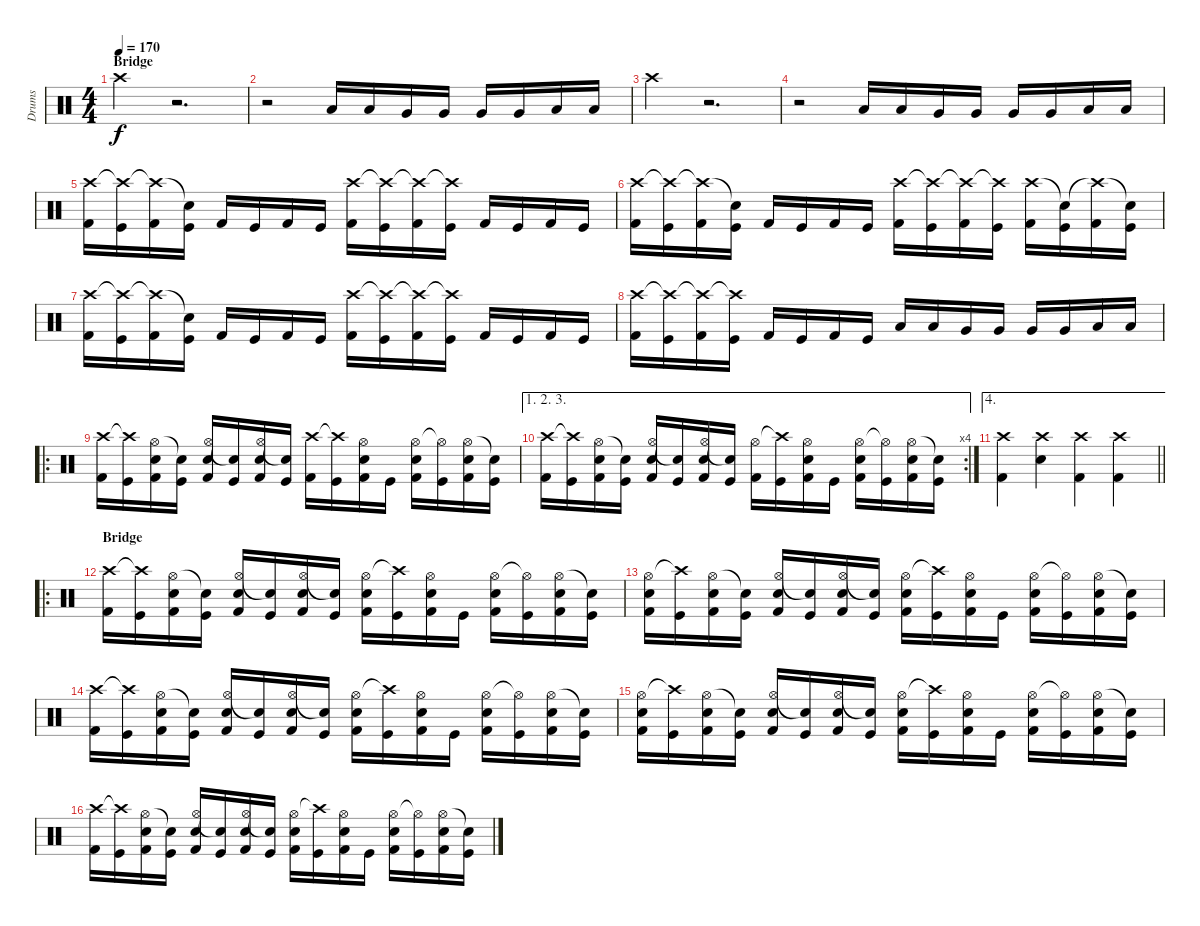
\track ("Drums" "Drums") {instrument percussion}
\staff {score}
\articulation defaults
\ts (4 4)
\section ("" "Bridge")
\tempo 170
\clef neutral
\ks c "Crash high (hit)".4{dy f}
r.2{d} |
r.2 "Low Tom (hit)".16 "Low Tom (hit)".16 "Very Low Tom (hit)".16 "Very Low Tom (hit)".16 "Very Low Tom (hit)".16 "Very Low Tom (hit)".16 "Low Floor Tom (hit)".16 "Low Floor Tom (hit)".16 |
"Crash high (hit)".4 r.2{d} |
r.2 "Low Tom (hit)".16 "Low Tom (hit)".16 "Very Low Tom (hit)".16 "Very Low Tom (hit)".16 "Very Low Tom (hit)".16 "Very Low Tom (hit)".16 "Low Floor Tom (hit)".16 "Low Floor Tom (hit)".16 |
("Crash high (hit)" "Kick (hit) 2").16 ("Crash high (hit)"{t} "Kick (hit)").16 ("Crash high (hit)"{t} "Kick (hit) 2").16 ("Snare (hit)"{t} "Kick (hit)").16 "Kick (hit) 2".16 "Kick (hit)".16 "Kick (hit) 2".16 "Kick (hit)".16 ("Crash high (hit)" "Kick (hit) 2").16 ("Crash high (hit)"{t} "Kick (hit)").16 ("Crash high (hit)"{t} "Kick (hit) 2").16 ("Crash high (hit)"{t} "Kick (hit)").16 "Kick (hit) 2".16 "Kick (hit)".16 "Kick (hit) 2".16 "Kick (hit)".16 |
("Crash high (hit)" "Kick (hit) 2").16 ("Crash high (hit)"{t} "Kick (hit)").16 ("Crash high (hit)"{t} "Kick (hit) 2").16 ("Snare (hit)"{t} "Kick (hit)").16 "Kick (hit) 2".16 "Kick (hit)".16 "Kick (hit) 2".16 "Kick (hit)".16 ("Crash high (hit)" "Kick (hit) 2").16 ("Crash high (hit)"{t} "Kick (hit)").16 ("Crash high (hit)"{t} "Kick (hit) 2").16 ("Crash high (hit)"{t} "Kick (hit)").16 ("Crash high (hit)" "Kick (hit) 2").16 ("Snare (hit)"{t} "Kick (hit)").16 ("Crash high (hit)"{t} "Kick (hit) 2").16 ("Snare (hit)"{t} "Kick (hit)").16 |
("Crash high (hit)" "Kick (hit) 2").16 ("Crash high (hit)"{t} "Kick (hit)").16 ("Crash high (hit)"{t} "Kick (hit) 2").16 ("Snare (hit)"{t} "Kick (hit)").16 "Kick (hit) 2".16 "Kick (hit)".16 "Kick (hit) 2".16 "Kick (hit)".16 ("Crash high (hit)" "Kick (hit) 2").16 ("Crash high (hit)"{t} "Kick (hit)").16 ("Crash high (hit)"{t} "Kick (hit) 2").16 ("Crash high (hit)"{t} "Kick (hit)").16 "Kick (hit) 2".16 "Kick (hit)".16 "Kick (hit) 2".16 "Kick (hit)".16 |
("Crash high (hit)" "Kick (hit) 2").16 ("Crash high (hit)"{t} "Kick (hit)").16 ("Crash high (hit)"{t} "Kick (hit) 2").16 ("Crash high (hit)"{t} "Kick (hit)").16 "Kick (hit) 2".16 "Kick (hit)".16 "Kick (hit) 2".16 "Kick (hit)".16 "Low Tom (hit)".16 "Low Tom (hit)".16 "Very Low Tom (hit)".16 "Very Low Tom (hit)".16 "Very Low Tom (hit)".16 "Very Low Tom (hit)".16 "Low Floor Tom (hit)".16 "Low Floor Tom (hit)".16 |
\ro
("Crash high (hit)" "Kick (hit) 2").16 ("Crash high (hit)"{t} "Kick (hit)").16 ("Hi-Hat (open)" "Electric Snare (hit)" "Kick (hit) 2").16 ("Snare (hit)"{t} "Kick (hit)").16 ("Hi-Hat (open)" "Electric Snare (hit)" "Kick (hit) 2").16 ("Snare (hit)"{t} "Kick (hit)").16 ("Hi-Hat (open)" "Electric Snare (hit)" "Kick (hit) 2").16 ("Snare (hit)"{t} "Kick (hit)").16 ("Crash high (hit)" "Kick (hit) 2").16 ("Crash high (hit)"{t} "Kick (hit)").16 ("Hi-Hat (open)" "Electric Snare (hit)" "Kick (hit) 2").16 "Kick (hit)".16 ("Hi-Hat (open)" "Electric Snare (hit)" "Kick (hit) 2").16 ("Hi-Hat (open)"{t} "Kick (hit)").16 ("Hi-Hat (open)" "Electric Snare (hit)" "Kick (hit) 2").16 ("Snare (hit)"{t} "Kick (hit)").16 |
\ae (1 2 3)
\rc 4
("Crash high (hit)" "Kick (hit) 2").16 ("Crash high (hit)"{t} "Kick (hit)").16 ("Hi-Hat (open)" "Electric Snare (hit)" "Kick (hit) 2").16 ("Snare (hit)"{t} "Kick (hit)").16 ("Hi-Hat (open)" "Electric Snare (hit)" "Kick (hit) 2").16 ("Snare (hit)"{t} "Kick (hit)").16 ("Hi-Hat (open)" "Electric Snare (hit)" "Kick (hit) 2").16 ("Snare (hit)"{t} "Kick (hit)").16 ("Hi-Hat (open)" "Kick (hit) 2").16 ("Crash high (hit)"{t} "Kick (hit)").16 ("Hi-Hat (open)" "Electric Snare (hit)" "Kick (hit) 2").16 "Kick (hit)".16 ("Hi-Hat (open)" "Electric Snare (hit)" "Kick (hit) 2").16 ("Hi-Hat (open)"{t} "Kick (hit)").16 ("Hi-Hat (open)" "Electric Snare (hit)" "Kick (hit) 2").16 ("Snare (hit)"{t} "Kick (hit)").16 |
\ae 4
\barLineRight lightlight
("Crash high (hit)" "Kick (hit) 2").4 ("Crash high (hit)" "Electric Snare (hit)").4 ("Crash high (hit)" "Kick (hit) 2").4 ("Crash high (hit)" "Kick (hit) 2").4 |
\ro
\section ("" "Bridge")
("Crash high (hit)" "Kick (hit) 2").16 ("Crash high (hit)"{t} "Kick (hit)").16 ("Hi-Hat (open)" "Electric Snare (hit)" "Kick (hit) 2").16 ("Snare (hit)"{t} "Kick (hit)").16 ("Hi-Hat (open)" "Electric Snare (hit)" "Kick (hit) 2").16 ("Snare (hit)"{t} "Kick (hit)").16 ("Hi-Hat (open)" "Electric Snare (hit)" "Kick (hit) 2").16 ("Snare (hit)"{t} "Kick (hit)").16 ("Hi-Hat (open)" "Electric Snare (hit)" "Kick (hit) 2").16 ("Crash high (hit)"{t} "Kick (hit)").16 ("Hi-Hat (open)" "Electric Snare (hit)" "Kick (hit) 2").16 "Kick (hit)".16 ("Hi-Hat (open)" "Electric Snare (hit)" "Kick (hit) 2").16 ("Hi-Hat (open)"{t} "Kick (hit)").16 ("Hi-Hat (open)" "Electric Snare (hit)" "Kick (hit) 2").16 ("Snare (hit)"{t} "Kick (hit)").16 |
("Hi-Hat (open)" "Electric Snare (hit)" "Kick (hit) 2").16 ("Crash high (hit)"{t} "Kick (hit)").16 ("Hi-Hat (open)" "Electric Snare (hit)" "Kick (hit) 2").16 ("Snare (hit)"{t} "Kick (hit)").16 ("Hi-Hat (open)" "Electric Snare (hit)" "Kick (hit) 2").16 ("Snare (hit)"{t} "Kick (hit)").16 ("Hi-Hat (open)" "Electric Snare (hit)" "Kick (hit) 2").16 ("Snare (hit)"{t} "Kick (hit)").16 ("Hi-Hat (open)" "Electric Snare (hit)" "Kick (hit) 2").16 ("Crash high (hit)"{t} "Kick (hit)").16 ("Hi-Hat (open)" "Electric Snare (hit)" "Kick (hit) 2").16 "Kick (hit)".16 ("Hi-Hat (open)" "Electric Snare (hit)" "Kick (hit) 2").16 ("Hi-Hat (open)"{t} "Kick (hit)").16 ("Hi-Hat (open)" "Electric Snare (hit)" "Kick (hit) 2").16 ("Snare (hit)"{t} "Kick (hit)").16 |
("Crash high (hit)" "Kick (hit) 2").16 ("Crash high (hit)"{t} "Kick (hit)").16 ("Hi-Hat (open)" "Electric Snare (hit)" "Kick (hit) 2").16 ("Snare (hit)"{t} "Kick (hit)").16 ("Hi-Hat (open)" "Electric Snare (hit)" "Kick (hit) 2").16 ("Snare (hit)"{t} "Kick (hit)").16 ("Hi-Hat (open)" "Electric Snare (hit)" "Kick (hit) 2").16 ("Snare (hit)"{t} "Kick (hit)").16 ("Hi-Hat (open)" "Electric Snare (hit)" "Kick (hit) 2").16 ("Crash high (hit)"{t} "Kick (hit)").16 ("Hi-Hat (open)" "Electric Snare (hit)" "Kick (hit) 2").16 "Kick (hit)".16 ("Hi-Hat (open)" "Electric Snare (hit)" "Kick (hit) 2").16 ("Hi-Hat (open)"{t} "Kick (hit)").16 ("Hi-Hat (open)" "Electric Snare (hit)" "Kick (hit) 2").16 ("Snare (hit)"{t} "Kick (hit)").16 |
("Hi-Hat (open)" "Electric Snare (hit)" "Kick (hit) 2").16 ("Crash high (hit)"{t} "Kick (hit)").16 ("Hi-Hat (open)" "Electric Snare (hit)" "Kick (hit) 2").16 ("Snare (hit)"{t} "Kick (hit)").16 ("Hi-Hat (open)" "Electric Snare (hit)" "Kick (hit) 2").16 ("Snare (hit)"{t} "Kick (hit)").16 ("Hi-Hat (open)" "Electric Snare (hit)" "Kick (hit) 2").16 ("Snare (hit)"{t} "Kick (hit)").16 ("Hi-Hat (open)" "Electric Snare (hit)" "Kick (hit) 2").16 ("Crash high (hit)"{t} "Kick (hit)").16 ("Hi-Hat (open)" "Electric Snare (hit)" "Kick (hit) 2").16 "Kick (hit)".16 ("Hi-Hat (open)" "Electric Snare (hit)" "Kick (hit) 2").16 ("Hi-Hat (open)"{t} "Kick (hit)").16 ("Hi-Hat (open)" "Electric Snare (hit)" "Kick (hit) 2").16 ("Snare (hit)"{t} "Kick (hit)").16 |
("Crash high (hit)" "Kick (hit) 2").16 ("Crash high (hit)"{t} "Kick (hit)").16 ("Hi-Hat (open)" "Electric Snare (hit)" "Kick (hit) 2").16 ("Snare (hit)"{t} "Kick (hit)").16 ("Hi-Hat (open)" "Electric Snare (hit)" "Kick (hit) 2").16 ("Snare (hit)"{t} "Kick (hit)").16 ("Hi-Hat (open)" "Electric Snare (hit)" "Kick (hit) 2").16 ("Snare (hit)"{t} "Kick (hit)").16 ("Hi-Hat (open)" "Electric Snare (hit)" "Kick (hit) 2").16 ("Crash high (hit)"{t} "Kick (hit)").16 ("Hi-Hat (open)" "Electric Snare (hit)" "Kick (hit) 2").16 "Kick (hit)".16 ("Hi-Hat (open)" "Electric Snare (hit)" "Kick (hit) 2").16 ("Hi-Hat (open)"{t} "Kick (hit)").16 ("Hi-Hat (open)" "Electric Snare (hit)" "Kick (hit) 2").16 ("Snare (hit)"{t} "Kick (hit)").16
